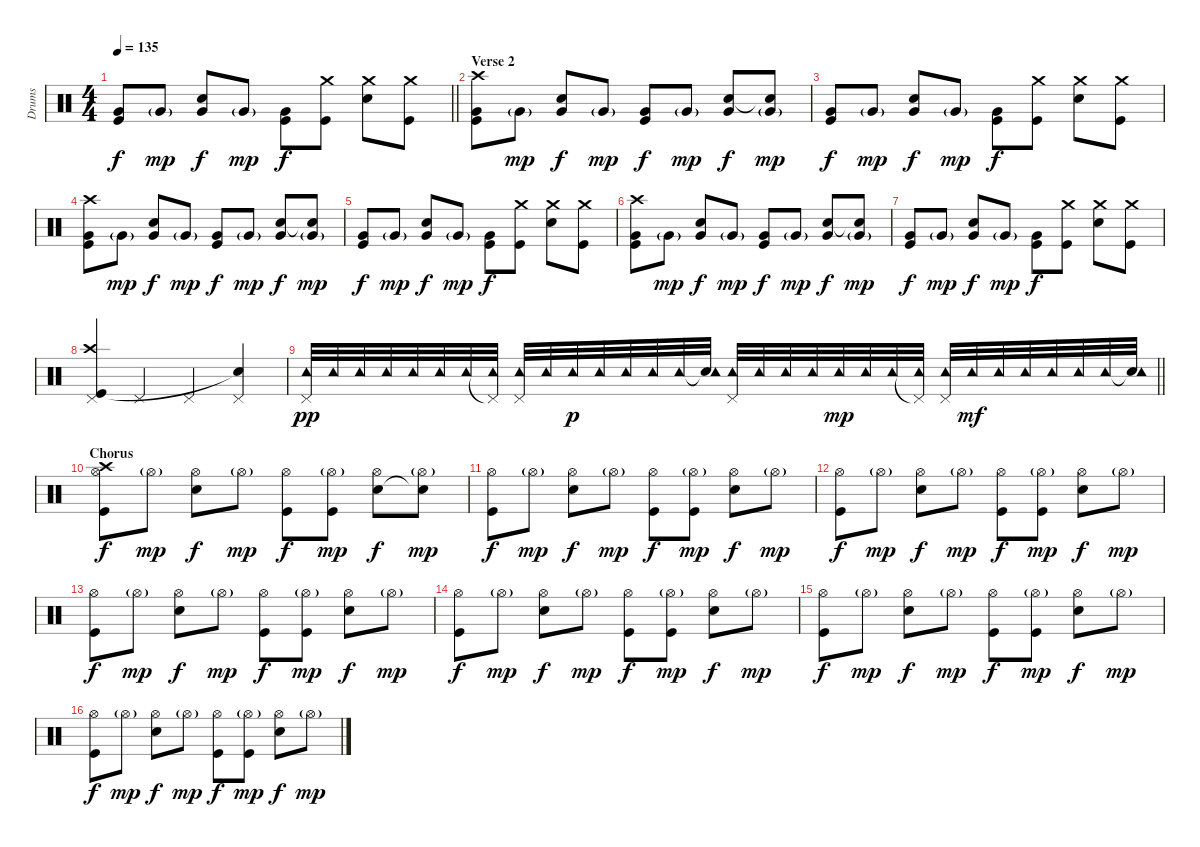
\track ("Drums" "Drums") {instrument percussion}
\staff {score}
\articulation defaults
\ts (4 4)
\tempo 135
\clef neutral
\barLineRight lightlight
\ks c
("Very Low Tom (hit)" "Kick (hit)").8{dy f} "Very Low Tom (hit)"{g}.8{dy mp} ("Very Low Tom (hit)" "Electric Snare (hit)").8{dy f} "Very Low Tom (hit)"{g}.8{dy mp} ("Very Low Tom (hit)" "Kick (hit)").8{dy f} ("Kick (hit)" "Crash medium (hit)").8 ("Electric Snare (hit)" "Crash medium (hit)").8 ("Kick (hit)" "Crash medium (hit)").8 |
\section ("" "Verse 2")
("Very Low Tom (hit)" "Kick (hit)" "Crash high (hit)").8 "Very Low Tom (hit)"{g}.8{dy mp} ("Very Low Tom (hit)" "Electric Snare (hit)").8{dy f} "Very Low Tom (hit)"{g}.8{dy mp} ("Very Low Tom (hit)" "Kick (hit)").8{dy f} "Very Low Tom (hit)"{g}.8{dy mp} ("Very Low Tom (hit)" "Electric Snare (hit)").8{dy f} ("Very Low Tom (hit)"{g} "Snare (hit)"{t}).8{dy mp} |
("Very Low Tom (hit)" "Kick (hit)").8{dy f} "Very Low Tom (hit)"{g}.8{dy mp} ("Very Low Tom (hit)" "Electric Snare (hit)").8{dy f} "Very Low Tom (hit)"{g}.8{dy mp} ("Very Low Tom (hit)" "Kick (hit)").8{dy f} ("Kick (hit)" "Crash medium (hit)").8 ("Electric Snare (hit)" "Crash medium (hit)").8 ("Kick (hit)" "Crash medium (hit)").8 |
("Very Low Tom (hit)" "Kick (hit)" "Crash high (hit)").8 "Very Low Tom (hit)"{g}.8{dy mp} ("Very Low Tom (hit)" "Electric Snare (hit)").8{dy f} "Very Low Tom (hit)"{g}.8{dy mp} ("Very Low Tom (hit)" "Kick (hit)").8{dy f} "Very Low Tom (hit)"{g}.8{dy mp} ("Very Low Tom (hit)" "Electric Snare (hit)").8{dy f} ("Very Low Tom (hit)"{g} "Snare (hit)"{t}).8{dy mp} |
("Very Low Tom (hit)" "Kick (hit)").8{dy f} "Very Low Tom (hit)"{g}.8{dy mp} ("Very Low Tom (hit)" "Electric Snare (hit)").8{dy f} "Very Low Tom (hit)"{g}.8{dy mp} ("Very Low Tom (hit)" "Kick (hit)").8{dy f} ("Kick (hit)" "Crash medium (hit)").8 ("Electric Snare (hit)" "Crash medium (hit)").8 ("Kick (hit)" "Crash medium (hit)").8 |
("Very Low Tom (hit)" "Kick (hit)" "Crash high (hit)").8 "Very Low Tom (hit)"{g}.8{dy mp} ("Very Low Tom (hit)" "Electric Snare (hit)").8{dy f} "Very Low Tom (hit)"{g}.8{dy mp} ("Very Low Tom (hit)" "Kick (hit)").8{dy f} "Very Low Tom (hit)"{g}.8{dy mp} ("Very Low Tom (hit)" "Electric Snare (hit)").8{dy f} ("Very Low Tom (hit)"{g} "Snare (hit)"{t}).8{dy mp} |
("Very Low Tom (hit)" "Kick (hit)").8{dy f} "Very Low Tom (hit)"{g}.8{dy mp} ("Very Low Tom (hit)" "Electric Snare (hit)").8{dy f} "Very Low Tom (hit)"{g}.8{dy mp} ("Very Low Tom (hit)" "Kick (hit)").8{dy f} ("Kick (hit)" "Crash medium (hit)").8 ("Electric Snare (hit)" "Crash medium (hit)").8 ("Kick (hit)" "Crash medium (hit)").8 |
("Pedal Hi-Hat (hit)" "Kick (hit)" "Crash high (hit)").4 "Pedal Hi-Hat (hit)".4 "Pedal Hi-Hat (hit)".4 ("Pedal Hi-Hat (hit)" "Snare (hit)"{t}).4 |
\barLineRight lightlight
("Pedal Hi-Hat (hit)" "Tambourine (hit)").32{dy pp} "Tambourine (hit)".32 "Tambourine (hit)".32 "Tambourine (hit)".32 "Tambourine (hit)".32 "Tambourine (hit)".32 "Tambourine (hit)".32 ("Pedal Hi-Hat (hit)"{t} "Tambourine (hit)").32 ("Pedal Hi-Hat (hit)" "Tambourine (hit)").32 "Tambourine (hit)".32 "Tambourine (hit)".32{dy p} "Tambourine (hit)".32 "Tambourine (hit)".32 "Tambourine (hit)".32 "Tambourine (hit)".32 ("Snare (hit)"{t} "Tambourine (hit)").32 ("Pedal Hi-Hat (hit)" "Tambourine (hit)").32 "Tambourine (hit)".32 "Tambourine (hit)".32 "Tambourine (hit)".32 "Tambourine (hit)".32{dy mp} "Tambourine (hit)".32 "Tambourine (hit)".32 ("Pedal Hi-Hat (hit)"{t} "Tambourine (hit)").32 ("Pedal Hi-Hat (hit)" "Tambourine (hit)").32 "Tambourine (hit)".32{dy mf} "Tambourine (hit)".32 "Tambourine (hit)".32 "Tambourine (hit)".32 "Tambourine (hit)".32 "Tambourine (hit)".32 ("Snare (hit)"{t} "Tambourine (hit)").32 |
\section ("" "Chorus")
("Hi-Hat (open)" "Kick (hit)" "Crash high (hit)").8{dy f} "Hi-Hat (open)"{g}.8{dy mp} ("Hi-Hat (open)" "Electric Snare (hit)").8{dy f} "Hi-Hat (open)"{g}.8{dy mp} ("Hi-Hat (open)" "Kick (hit)").8{dy f} ("Hi-Hat (open)"{g} "Kick (hit)").8{dy mp} ("Hi-Hat (open)" "Electric Snare (hit)").8{dy f} ("Hi-Hat (open)"{g} "Snare (hit)"{t}).8{dy mp} |
("Hi-Hat (open)" "Kick (hit)").8{dy f} "Hi-Hat (open)"{g}.8{dy mp} ("Hi-Hat (open)" "Electric Snare (hit)").8{dy f} "Hi-Hat (open)"{g}.8{dy mp} ("Hi-Hat (open)" "Kick (hit)").8{dy f} ("Hi-Hat (open)"{g} "Kick (hit)").8{dy mp} ("Hi-Hat (open)" "Electric Snare (hit)").8{dy f} "Hi-Hat (open)"{g}.8{dy mp} |
("Hi-Hat (open)" "Kick (hit)").8{dy f} "Hi-Hat (open)"{g}.8{dy mp} ("Hi-Hat (open)" "Electric Snare (hit)").8{dy f} "Hi-Hat (open)"{g}.8{dy mp} ("Hi-Hat (open)" "Kick (hit)").8{dy f} ("Hi-Hat (open)"{g} "Kick (hit)").8{dy mp} ("Hi-Hat (open)" "Electric Snare (hit)").8{dy f} "Hi-Hat (open)"{g}.8{dy mp} |
("Hi-Hat (open)" "Kick (hit)").8{dy f} "Hi-Hat (open)"{g}.8{dy mp} ("Hi-Hat (open)" "Electric Snare (hit)").8{dy f} "Hi-Hat (open)"{g}.8{dy mp} ("Hi-Hat (open)" "Kick (hit)").8{dy f} ("Hi-Hat (open)"{g} "Kick (hit)").8{dy mp} ("Hi-Hat (open)" "Electric Snare (hit)").8{dy f} "Hi-Hat (open)"{g}.8{dy mp} |
("Hi-Hat (open)" "Kick (hit)").8{dy f} "Hi-Hat (open)"{g}.8{dy mp} ("Hi-Hat (open)" "Electric Snare (hit)").8{dy f} "Hi-Hat (open)"{g}.8{dy mp} ("Hi-Hat (open)" "Kick (hit)").8{dy f} ("Hi-Hat (open)"{g} "Kick (hit)").8{dy mp} ("Hi-Hat (open)" "Electric Snare (hit)").8{dy f} "Hi-Hat (open)"{g}.8{dy mp} |
("Hi-Hat (open)" "Kick (hit)").8{dy f} "Hi-Hat (open)"{g}.8{dy mp} ("Hi-Hat (open)" "Electric Snare (hit)").8{dy f} "Hi-Hat (open)"{g}.8{dy mp} ("Hi-Hat (open)" "Kick (hit)").8{dy f} ("Hi-Hat (open)"{g} "Kick (hit)").8{dy mp} ("Hi-Hat (open)" "Electric Snare (hit)").8{dy f} "Hi-Hat (open)"{g}.8{dy mp} |
("Hi-Hat (open)" "Kick (hit)").8{dy f} "Hi-Hat (open)"{g}.8{dy mp} ("Hi-Hat (open)" "Electric Snare (hit)").8{dy f} "Hi-Hat (open)"{g}.8{dy mp} ("Hi-Hat (open)" "Kick (hit)").8{dy f} ("Hi-Hat (open)"{g} "Kick (hit)").8{dy mp} ("Hi-Hat (open)" "Electric Snare (hit)").8{dy f} "Hi-Hat (open)"{g}.8{dy mp}
